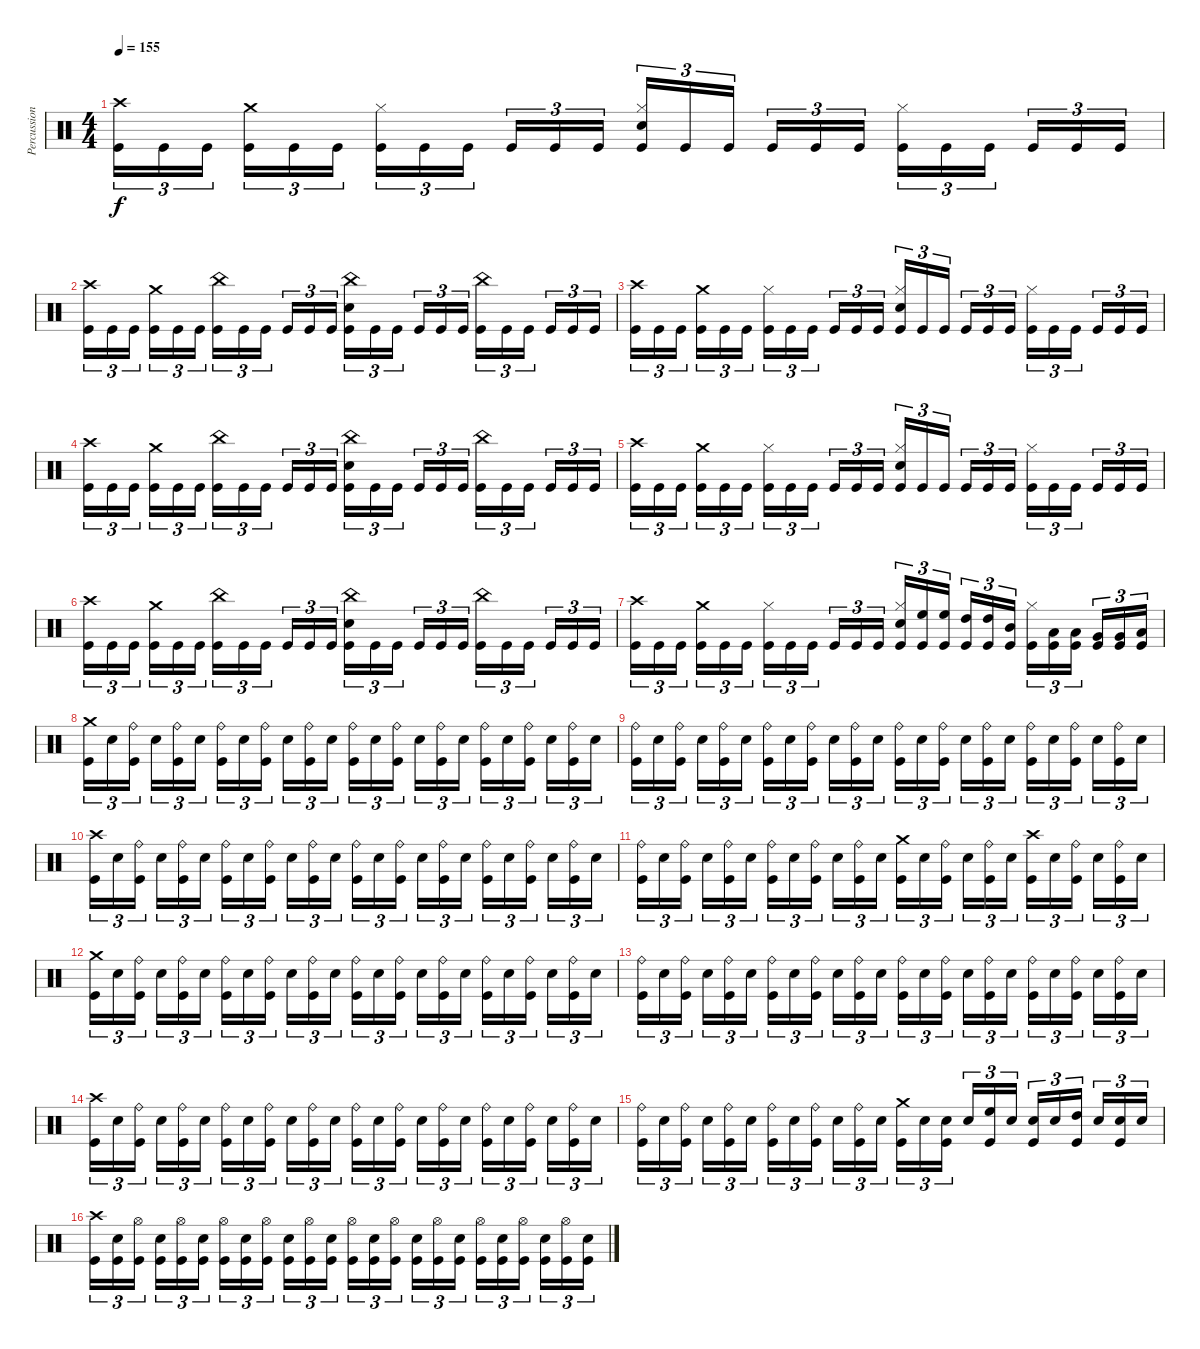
\track ("Percussion" "Percussion") {instrument percussion}
\staff {score}
\articulation defaults
\ts (4 4)
\tempo 155
\clef neutral
\ks c
("Crash high (hit)" "Kick (hit)").16{tu (3 2) dy f} "Kick (hit)".16{tu (3 2)} "Kick (hit)".16{tu (3 2) beam splitsecondary} ("Crash medium (hit)" "Kick (hit)").16{tu (3 2)} "Kick (hit)".16{tu (3 2)} "Kick (hit)".16{tu (3 2)} ("Hi-Hat (closed)" "Kick (hit)").16{tu (3 2)} "Kick (hit)".16{tu (3 2)} "Kick (hit)".16{tu (3 2) beam splitsecondary} "Kick (hit)".16{tu (3 2)} "Kick (hit)".16{tu (3 2)} "Kick (hit)".16{tu (3 2)} ("Hi-Hat (closed)" "Snare (hit) 2" "Kick (hit)").16{tu (3 2)} "Kick (hit)".16{tu (3 2)} "Kick (hit)".16{tu (3 2) beam splitsecondary} "Kick (hit)".16{tu (3 2)} "Kick (hit)".16{tu (3 2)} "Kick (hit)".16{tu (3 2)} ("Hi-Hat (closed)" "Kick (hit)").16{tu (3 2)} "Kick (hit)".16{tu (3 2)} "Kick (hit)".16{tu (3 2) beam splitsecondary} "Kick (hit)".16{tu (3 2)} "Kick (hit)".16{tu (3 2)} "Kick (hit)".16{tu (3 2)} |
("Crash high (hit)" "Kick (hit)").16{tu (3 2)} "Kick (hit)".16{tu (3 2)} "Kick (hit)".16{tu (3 2) beam splitsecondary} ("Crash medium (hit)" "Kick (hit)").16{tu (3 2)} "Kick (hit)".16{tu (3 2)} "Kick (hit)".16{tu (3 2)} ("China (hit)" "Kick (hit)").16{tu (3 2)} "Kick (hit)".16{tu (3 2)} "Kick (hit)".16{tu (3 2) beam splitsecondary} "Kick (hit)".16{tu (3 2)} "Kick (hit)".16{tu (3 2)} "Kick (hit)".16{tu (3 2)} ("China (hit)" "Snare (hit) 2" "Kick (hit)").16{tu (3 2)} "Kick (hit)".16{tu (3 2)} "Kick (hit)".16{tu (3 2) beam splitsecondary} "Kick (hit)".16{tu (3 2)} "Kick (hit)".16{tu (3 2)} "Kick (hit)".16{tu (3 2)} ("China (hit)" "Kick (hit)").16{tu (3 2)} "Kick (hit)".16{tu (3 2)} "Kick (hit)".16{tu (3 2) beam splitsecondary} "Kick (hit)".16{tu (3 2)} "Kick (hit)".16{tu (3 2)} "Kick (hit)".16{tu (3 2)} |
("Crash high (hit)" "Kick (hit)").16{tu (3 2)} "Kick (hit)".16{tu (3 2)} "Kick (hit)".16{tu (3 2) beam splitsecondary} ("Crash medium (hit)" "Kick (hit)").16{tu (3 2)} "Kick (hit)".16{tu (3 2)} "Kick (hit)".16{tu (3 2)} ("Hi-Hat (closed)" "Kick (hit)").16{tu (3 2)} "Kick (hit)".16{tu (3 2)} "Kick (hit)".16{tu (3 2) beam splitsecondary} "Kick (hit)".16{tu (3 2)} "Kick (hit)".16{tu (3 2)} "Kick (hit)".16{tu (3 2)} ("Hi-Hat (closed)" "Snare (hit) 2" "Kick (hit)").16{tu (3 2)} "Kick (hit)".16{tu (3 2)} "Kick (hit)".16{tu (3 2) beam splitsecondary} "Kick (hit)".16{tu (3 2)} "Kick (hit)".16{tu (3 2)} "Kick (hit)".16{tu (3 2)} ("Hi-Hat (closed)" "Kick (hit)").16{tu (3 2)} "Kick (hit)".16{tu (3 2)} "Kick (hit)".16{tu (3 2) beam splitsecondary} "Kick (hit)".16{tu (3 2)} "Kick (hit)".16{tu (3 2)} "Kick (hit)".16{tu (3 2)} |
("Crash high (hit)" "Kick (hit)").16{tu (3 2)} "Kick (hit)".16{tu (3 2)} "Kick (hit)".16{tu (3 2) beam splitsecondary} ("Crash medium (hit)" "Kick (hit)").16{tu (3 2)} "Kick (hit)".16{tu (3 2)} "Kick (hit)".16{tu (3 2)} ("China (hit)" "Kick (hit)").16{tu (3 2)} "Kick (hit)".16{tu (3 2)} "Kick (hit)".16{tu (3 2) beam splitsecondary} "Kick (hit)".16{tu (3 2)} "Kick (hit)".16{tu (3 2)} "Kick (hit)".16{tu (3 2)} ("China (hit)" "Snare (hit) 2" "Kick (hit)").16{tu (3 2)} "Kick (hit)".16{tu (3 2)} "Kick (hit)".16{tu (3 2) beam splitsecondary} "Kick (hit)".16{tu (3 2)} "Kick (hit)".16{tu (3 2)} "Kick (hit)".16{tu (3 2)} ("China (hit)" "Kick (hit)").16{tu (3 2)} "Kick (hit)".16{tu (3 2)} "Kick (hit)".16{tu (3 2) beam splitsecondary} "Kick (hit)".16{tu (3 2)} "Kick (hit)".16{tu (3 2)} "Kick (hit)".16{tu (3 2)} |
("Crash high (hit)" "Kick (hit)").16{tu (3 2)} "Kick (hit)".16{tu (3 2)} "Kick (hit)".16{tu (3 2) beam splitsecondary} ("Crash medium (hit)" "Kick (hit)").16{tu (3 2)} "Kick (hit)".16{tu (3 2)} "Kick (hit)".16{tu (3 2)} ("Hi-Hat (closed)" "Kick (hit)").16{tu (3 2)} "Kick (hit)".16{tu (3 2)} "Kick (hit)".16{tu (3 2) beam splitsecondary} "Kick (hit)".16{tu (3 2)} "Kick (hit)".16{tu (3 2)} "Kick (hit)".16{tu (3 2)} ("Hi-Hat (closed)" "Snare (hit) 2" "Kick (hit)").16{tu (3 2)} "Kick (hit)".16{tu (3 2)} "Kick (hit)".16{tu (3 2) beam splitsecondary} "Kick (hit)".16{tu (3 2)} "Kick (hit)".16{tu (3 2)} "Kick (hit)".16{tu (3 2)} ("Hi-Hat (closed)" "Kick (hit)").16{tu (3 2)} "Kick (hit)".16{tu (3 2)} "Kick (hit)".16{tu (3 2) beam splitsecondary} "Kick (hit)".16{tu (3 2)} "Kick (hit)".16{tu (3 2)} "Kick (hit)".16{tu (3 2)} |
("Crash high (hit)" "Kick (hit)").16{tu (3 2)} "Kick (hit)".16{tu (3 2)} "Kick (hit)".16{tu (3 2) beam splitsecondary} ("Crash medium (hit)" "Kick (hit)").16{tu (3 2)} "Kick (hit)".16{tu (3 2)} "Kick (hit)".16{tu (3 2)} ("China (hit)" "Kick (hit)").16{tu (3 2)} "Kick (hit)".16{tu (3 2)} "Kick (hit)".16{tu (3 2) beam splitsecondary} "Kick (hit)".16{tu (3 2)} "Kick (hit)".16{tu (3 2)} "Kick (hit)".16{tu (3 2)} ("China (hit)" "Snare (hit) 2" "Kick (hit)").16{tu (3 2)} "Kick (hit)".16{tu (3 2)} "Kick (hit)".16{tu (3 2) beam splitsecondary} "Kick (hit)".16{tu (3 2)} "Kick (hit)".16{tu (3 2)} "Kick (hit)".16{tu (3 2)} ("China (hit)" "Kick (hit)").16{tu (3 2)} "Kick (hit)".16{tu (3 2)} "Kick (hit)".16{tu (3 2) beam splitsecondary} "Kick (hit)".16{tu (3 2)} "Kick (hit)".16{tu (3 2)} "Kick (hit)".16{tu (3 2)} |
("Crash high (hit)" "Kick (hit)").16{tu (3 2)} "Kick (hit)".16{tu (3 2)} "Kick (hit)".16{tu (3 2) beam splitsecondary} ("Crash medium (hit)" "Kick (hit)").16{tu (3 2)} "Kick (hit)".16{tu (3 2)} "Kick (hit)".16{tu (3 2)} ("Hi-Hat (closed)" "Kick (hit)").16{tu (3 2)} "Kick (hit)".16{tu (3 2)} "Kick (hit)".16{tu (3 2) beam splitsecondary} "Kick (hit)".16{tu (3 2)} "Kick (hit)".16{tu (3 2)} "Kick (hit)".16{tu (3 2)} ("Hi-Hat (closed)" "Snare (hit) 2" "Kick (hit)").16{tu (3 2)} ("High Floor Tom (hit)" "Kick (hit)").16{tu (3 2)} ("High Floor Tom (hit)" "Kick (hit)").16{tu (3 2) beam splitsecondary} ("High Tom (hit)" "Kick (hit)").16{tu (3 2)} ("High Tom (hit)" "Kick (hit)").16{tu (3 2)} ("Mid Tom (hit)" "Kick (hit)").16{tu (3 2)} ("Hi-Hat (closed)" "Kick (hit)").16{tu (3 2)} ("Low Tom (hit)" "Kick (hit)").16{tu (3 2)} ("Low Tom (hit)" "Kick (hit)").16{tu (3 2) beam splitsecondary} ("Very Low Tom (hit)" "Kick (hit)").16{tu (3 2)} ("Very Low Tom (hit)" "Kick (hit)").16{tu (3 2)} ("Low Floor Tom (hit)" "Kick (hit)").16{tu (3 2)} |
("Crash medium (hit)" "Kick (hit)").16{tu (3 2)} "Snare (hit) 2".16{tu (3 2)} ("Ride (bell)" "Kick (hit)").16{tu (3 2) beam splitsecondary} "Snare (hit) 2".16{tu (3 2)} ("Ride (bell)" "Kick (hit)").16{tu (3 2)} "Snare (hit) 2".16{tu (3 2)} ("Ride (bell)" "Kick (hit)").16{tu (3 2)} "Snare (hit) 2".16{tu (3 2)} ("Ride (bell)" "Kick (hit)").16{tu (3 2) beam splitsecondary} "Snare (hit) 2".16{tu (3 2)} ("Ride (bell)" "Kick (hit)").16{tu (3 2)} "Snare (hit) 2".16{tu (3 2)} ("Ride (bell)" "Kick (hit)").16{tu (3 2)} "Snare (hit) 2".16{tu (3 2)} ("Ride (bell)" "Kick (hit)").16{tu (3 2) beam splitsecondary} "Snare (hit) 2".16{tu (3 2)} ("Ride (bell)" "Kick (hit)").16{tu (3 2)} "Snare (hit) 2".16{tu (3 2)} ("Ride (bell)" "Kick (hit)").16{tu (3 2)} "Snare (hit) 2".16{tu (3 2)} ("Ride (bell)" "Kick (hit)").16{tu (3 2) beam splitsecondary} "Snare (hit) 2".16{tu (3 2)} ("Ride (bell)" "Kick (hit)").16{tu (3 2)} "Snare (hit) 2".16{tu (3 2)} |
("Ride (bell)" "Kick (hit)").16{tu (3 2)} "Snare (hit) 2".16{tu (3 2)} ("Ride (bell)" "Kick (hit)").16{tu (3 2) beam splitsecondary} "Snare (hit) 2".16{tu (3 2)} ("Ride (bell)" "Kick (hit)").16{tu (3 2)} "Snare (hit) 2".16{tu (3 2)} ("Ride (bell)" "Kick (hit)").16{tu (3 2)} "Snare (hit) 2".16{tu (3 2)} ("Ride (bell)" "Kick (hit)").16{tu (3 2) beam splitsecondary} "Snare (hit) 2".16{tu (3 2)} ("Ride (bell)" "Kick (hit)").16{tu (3 2)} "Snare (hit) 2".16{tu (3 2)} ("Ride (bell)" "Kick (hit)").16{tu (3 2)} "Snare (hit) 2".16{tu (3 2)} ("Ride (bell)" "Kick (hit)").16{tu (3 2) beam splitsecondary} "Snare (hit) 2".16{tu (3 2)} ("Ride (bell)" "Kick (hit)").16{tu (3 2)} "Snare (hit) 2".16{tu (3 2)} ("Ride (bell)" "Kick (hit)").16{tu (3 2)} "Snare (hit) 2".16{tu (3 2)} ("Ride (bell)" "Kick (hit)").16{tu (3 2) beam splitsecondary} "Snare (hit) 2".16{tu (3 2)} ("Ride (bell)" "Kick (hit)").16{tu (3 2)} "Snare (hit) 2".16{tu (3 2)} |
("Crash high (hit)" "Kick (hit)").16{tu (3 2)} "Snare (hit) 2".16{tu (3 2)} ("Ride (bell)" "Kick (hit)").16{tu (3 2) beam splitsecondary} "Snare (hit) 2".16{tu (3 2)} ("Ride (bell)" "Kick (hit)").16{tu (3 2)} "Snare (hit) 2".16{tu (3 2)} ("Ride (bell)" "Kick (hit)").16{tu (3 2)} "Snare (hit) 2".16{tu (3 2)} ("Ride (bell)" "Kick (hit)").16{tu (3 2) beam splitsecondary} "Snare (hit) 2".16{tu (3 2)} ("Ride (bell)" "Kick (hit)").16{tu (3 2)} "Snare (hit) 2".16{tu (3 2)} ("Ride (bell)" "Kick (hit)").16{tu (3 2)} "Snare (hit) 2".16{tu (3 2)} ("Ride (bell)" "Kick (hit)").16{tu (3 2) beam splitsecondary} "Snare (hit) 2".16{tu (3 2)} ("Ride (bell)" "Kick (hit)").16{tu (3 2)} "Snare (hit) 2".16{tu (3 2)} ("Ride (bell)" "Kick (hit)").16{tu (3 2)} "Snare (hit) 2".16{tu (3 2)} ("Ride (bell)" "Kick (hit)").16{tu (3 2) beam splitsecondary} "Snare (hit) 2".16{tu (3 2)} ("Ride (bell)" "Kick (hit)").16{tu (3 2)} "Snare (hit) 2".16{tu (3 2)} |
("Ride (bell)" "Kick (hit)").16{tu (3 2)} "Snare (hit) 2".16{tu (3 2)} ("Ride (bell)" "Kick (hit)").16{tu (3 2) beam splitsecondary} "Snare (hit) 2".16{tu (3 2)} ("Ride (bell)" "Kick (hit)").16{tu (3 2)} "Snare (hit) 2".16{tu (3 2)} ("Ride (bell)" "Kick (hit)").16{tu (3 2)} "Snare (hit) 2".16{tu (3 2)} ("Ride (bell)" "Kick (hit)").16{tu (3 2) beam splitsecondary} "Snare (hit) 2".16{tu (3 2)} ("Ride (bell)" "Kick (hit)").16{tu (3 2)} "Snare (hit) 2".16{tu (3 2)} ("Crash medium (hit)" "Kick (hit)").16{tu (3 2)} "Snare (hit) 2".16{tu (3 2)} ("Ride (bell)" "Kick (hit)").16{tu (3 2) beam splitsecondary} "Snare (hit) 2".16{tu (3 2)} ("Ride (bell)" "Kick (hit)").16{tu (3 2)} "Snare (hit) 2".16{tu (3 2)} ("Crash high (hit)" "Kick (hit)").16{tu (3 2)} "Snare (hit) 2".16{tu (3 2)} ("Ride (bell)" "Kick (hit)").16{tu (3 2) beam splitsecondary} "Snare (hit) 2".16{tu (3 2)} ("Ride (bell)" "Kick (hit)").16{tu (3 2)} "Snare (hit) 2".16{tu (3 2)} |
("Crash medium (hit)" "Kick (hit)").16{tu (3 2)} "Snare (hit) 2".16{tu (3 2)} ("Ride (bell)" "Kick (hit)").16{tu (3 2) beam splitsecondary} "Snare (hit) 2".16{tu (3 2)} ("Ride (bell)" "Kick (hit)").16{tu (3 2)} "Snare (hit) 2".16{tu (3 2)} ("Ride (bell)" "Kick (hit)").16{tu (3 2)} "Snare (hit) 2".16{tu (3 2)} ("Ride (bell)" "Kick (hit)").16{tu (3 2) beam splitsecondary} "Snare (hit) 2".16{tu (3 2)} ("Ride (bell)" "Kick (hit)").16{tu (3 2)} "Snare (hit) 2".16{tu (3 2)} ("Ride (bell)" "Kick (hit)").16{tu (3 2)} "Snare (hit) 2".16{tu (3 2)} ("Ride (bell)" "Kick (hit)").16{tu (3 2) beam splitsecondary} "Snare (hit) 2".16{tu (3 2)} ("Ride (bell)" "Kick (hit)").16{tu (3 2)} "Snare (hit) 2".16{tu (3 2)} ("Ride (bell)" "Kick (hit)").16{tu (3 2)} "Snare (hit) 2".16{tu (3 2)} ("Ride (bell)" "Kick (hit)").16{tu (3 2) beam splitsecondary} "Snare (hit) 2".16{tu (3 2)} ("Ride (bell)" "Kick (hit)").16{tu (3 2)} "Snare (hit) 2".16{tu (3 2)} |
("Ride (bell)" "Kick (hit)").16{tu (3 2)} "Snare (hit) 2".16{tu (3 2)} ("Ride (bell)" "Kick (hit)").16{tu (3 2) beam splitsecondary} "Snare (hit) 2".16{tu (3 2)} ("Ride (bell)" "Kick (hit)").16{tu (3 2)} "Snare (hit) 2".16{tu (3 2)} ("Ride (bell)" "Kick (hit)").16{tu (3 2)} "Snare (hit) 2".16{tu (3 2)} ("Ride (bell)" "Kick (hit)").16{tu (3 2) beam splitsecondary} "Snare (hit) 2".16{tu (3 2)} ("Ride (bell)" "Kick (hit)").16{tu (3 2)} "Snare (hit) 2".16{tu (3 2)} ("Ride (bell)" "Kick (hit)").16{tu (3 2)} "Snare (hit) 2".16{tu (3 2)} ("Ride (bell)" "Kick (hit)").16{tu (3 2) beam splitsecondary} "Snare (hit) 2".16{tu (3 2)} ("Ride (bell)" "Kick (hit)").16{tu (3 2)} "Snare (hit) 2".16{tu (3 2)} ("Ride (bell)" "Kick (hit)").16{tu (3 2)} "Snare (hit) 2".16{tu (3 2)} ("Ride (bell)" "Kick (hit)").16{tu (3 2) beam splitsecondary} "Snare (hit) 2".16{tu (3 2)} ("Ride (bell)" "Kick (hit)").16{tu (3 2)} "Snare (hit) 2".16{tu (3 2)} |
("Crash high (hit)" "Kick (hit)").16{tu (3 2)} "Snare (hit) 2".16{tu (3 2)} ("Ride (bell)" "Kick (hit)").16{tu (3 2) beam splitsecondary} "Snare (hit) 2".16{tu (3 2)} ("Ride (bell)" "Kick (hit)").16{tu (3 2)} "Snare (hit) 2".16{tu (3 2)} ("Ride (bell)" "Kick (hit)").16{tu (3 2)} "Snare (hit) 2".16{tu (3 2)} ("Ride (bell)" "Kick (hit)").16{tu (3 2) beam splitsecondary} "Snare (hit) 2".16{tu (3 2)} ("Ride (bell)" "Kick (hit)").16{tu (3 2)} "Snare (hit) 2".16{tu (3 2)} ("Ride (bell)" "Kick (hit)").16{tu (3 2)} "Snare (hit) 2".16{tu (3 2)} ("Ride (bell)" "Kick (hit)").16{tu (3 2) beam splitsecondary} "Snare (hit) 2".16{tu (3 2)} ("Ride (bell)" "Kick (hit)").16{tu (3 2)} "Snare (hit) 2".16{tu (3 2)} ("Ride (bell)" "Kick (hit)").16{tu (3 2)} "Snare (hit) 2".16{tu (3 2)} ("Ride (bell)" "Kick (hit)").16{tu (3 2) beam splitsecondary} "Snare (hit) 2".16{tu (3 2)} ("Ride (bell)" "Kick (hit)").16{tu (3 2)} "Snare (hit) 2".16{tu (3 2)} |
("Ride (bell)" "Kick (hit)").16{tu (3 2)} "Snare (hit) 2".16{tu (3 2)} ("Ride (bell)" "Kick (hit)").16{tu (3 2) beam splitsecondary} "Snare (hit) 2".16{tu (3 2)} ("Ride (bell)" "Kick (hit)").16{tu (3 2)} "Snare (hit) 2".16{tu (3 2)} ("Ride (bell)" "Kick (hit)").16{tu (3 2)} "Snare (hit) 2".16{tu (3 2)} ("Ride (bell)" "Kick (hit)").16{tu (3 2) beam splitsecondary} "Snare (hit) 2".16{tu (3 2)} ("Ride (bell)" "Kick (hit)").16{tu (3 2)} "Snare (hit) 2".16{tu (3 2)} ("Crash medium (hit)" "Kick (hit)").16{tu (3 2)} "Snare (hit) 2".16{tu (3 2)} ("Snare (hit) 2" "Kick (hit)").16{tu (3 2) beam splitsecondary} "Snare (hit) 2".16{tu (3 2)} ("High Floor Tom (hit)" "Kick (hit)").16{tu (3 2)} "Snare (hit) 2".16{tu (3 2)} ("Snare (hit) 2" "Kick (hit)").16{tu (3 2)} "Snare (hit) 2".16{tu (3 2)} ("High Tom (hit)" "Kick (hit)").16{tu (3 2) beam splitsecondary} "Snare (hit) 2".16{tu (3 2)} ("Snare (hit) 2" "Kick (hit)").16{tu (3 2)} "Snare (hit) 2".16{tu (3 2)} |
("Crash high (hit)" "Kick (hit)").16{tu (3 2)} ("Snare (hit) 2" "Kick (hit)").16{tu (3 2)} ("Hi-Hat (open)" "Kick (hit)").16{tu (3 2) beam splitsecondary} ("Snare (hit) 2" "Kick (hit)").16{tu (3 2)} ("Hi-Hat (open)" "Kick (hit)").16{tu (3 2)} ("Snare (hit) 2" "Kick (hit)").16{tu (3 2)} ("Hi-Hat (open)" "Kick (hit)").16{tu (3 2)} ("Snare (hit) 2" "Kick (hit)").16{tu (3 2)} ("Hi-Hat (open)" "Kick (hit)").16{tu (3 2) beam splitsecondary} ("Snare (hit) 2" "Kick (hit)").16{tu (3 2)} ("Hi-Hat (open)" "Kick (hit)").16{tu (3 2)} ("Snare (hit) 2" "Kick (hit)").16{tu (3 2)} ("Hi-Hat (open)" "Kick (hit)").16{tu (3 2)} ("Snare (hit) 2" "Kick (hit)").16{tu (3 2)} ("Hi-Hat (open)" "Kick (hit)").16{tu (3 2) beam splitsecondary} ("Snare (hit) 2" "Kick (hit)").16{tu (3 2)} ("Hi-Hat (open)" "Kick (hit)").16{tu (3 2)} ("Snare (hit) 2" "Kick (hit)").16{tu (3 2)} ("Hi-Hat (open)" "Kick (hit)").16{tu (3 2)} ("Snare (hit) 2" "Kick (hit)").16{tu (3 2)} ("Hi-Hat (open)" "Kick (hit)").16{tu (3 2) beam splitsecondary} ("Snare (hit) 2" "Kick (hit)").16{tu (3 2)} ("Hi-Hat (open)" "Kick (hit)").16{tu (3 2)} ("Snare (hit) 2" "Kick (hit)").16{tu (3 2)}
